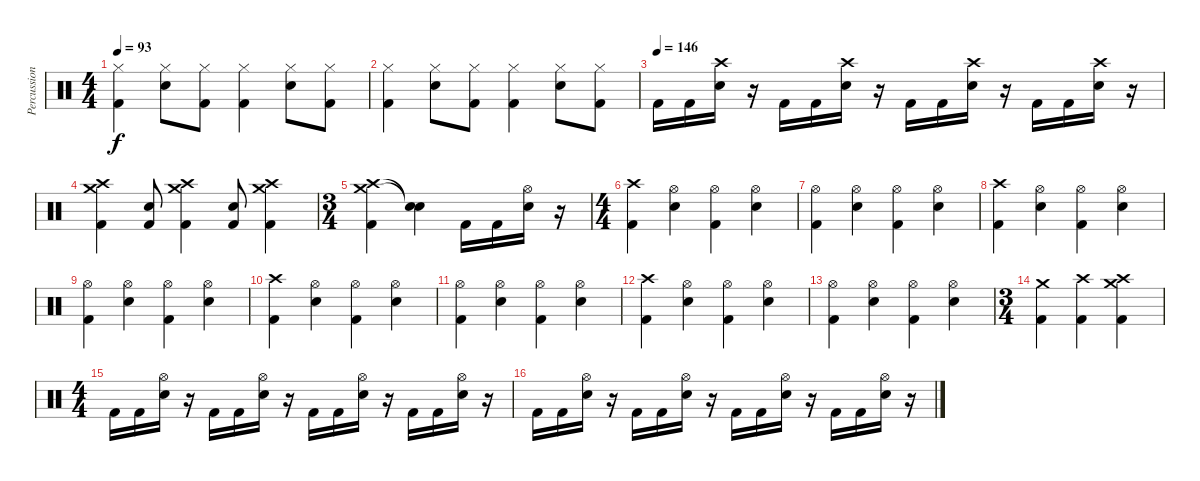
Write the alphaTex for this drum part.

\track ("Percussion(Dr.Spock)" "Percussion") {instrument percussion}
\staff {score}
\articulation defaults
\ts (4 4)
\tempo 93
\clef neutral
\ks c
("Hi-Hat (closed)" "Kick (hit) 2").4{dy f} ("Hi-Hat (closed)" "Snare (hit) 2").8 ("Hi-Hat (closed)" "Kick (hit) 2").8 ("Hi-Hat (closed)" "Kick (hit) 2").4 ("Hi-Hat (closed)" "Snare (hit) 2").8 ("Hi-Hat (closed)" "Kick (hit) 2").8 |
("Hi-Hat (closed)" "Kick (hit) 2").4 ("Hi-Hat (closed)" "Snare (hit) 2").8 ("Hi-Hat (closed)" "Kick (hit) 2").8 ("Hi-Hat (closed)" "Kick (hit) 2").4 ("Hi-Hat (closed)" "Snare (hit) 2").8 ("Hi-Hat (closed)" "Kick (hit) 2").8 |
\tempo (146)
"Kick (hit) 2".16 "Kick (hit) 2".16 ("Snare (hit) 2" "Crash high (hit)").16 r.16 "Kick (hit) 2".16 "Kick (hit) 2".16 ("Snare (hit) 2" "Crash high (hit)").16 r.16 "Kick (hit) 2".16 "Kick (hit) 2".16 ("Snare (hit) 2" "Crash high (hit)").16 r.16 "Kick (hit) 2".16 "Kick (hit) 2".16 ("Snare (hit) 2" "Crash high (hit)").16 r.16 |
("Crash medium (hit)" "Crash high (hit)" "Kick (hit) 2").4 ("Snare (hit) 2" "Kick (hit) 2").8 ("Crash medium (hit)" "Crash high (hit)" "Kick (hit) 2").4 ("Snare (hit) 2" "Kick (hit) 2").8 ("Crash medium (hit)" "Crash high (hit)" "Kick (hit) 2").4 |
\ts (3 4)
("Crash medium (hit)" "Crash high (hit)" "Kick (hit) 2").4 ("Snare (hit)"{t} "Snare (hit)"{t}).4 "Kick (hit) 2".16 "Kick (hit) 2".16 ("Snare (hit) 2" "Hi-Hat (open)").16 r.16 |
\ts (4 4)
("Crash high (hit)" "Kick (hit) 2").4 ("Hi-Hat (open)" "Snare (hit) 2").4 ("Hi-Hat (open)" "Kick (hit) 2").4 ("Hi-Hat (open)" "Snare (hit) 2").4 |
("Hi-Hat (open)" "Kick (hit) 2").4 ("Hi-Hat (open)" "Snare (hit) 2").4 ("Hi-Hat (open)" "Kick (hit) 2").4 ("Hi-Hat (open)" "Snare (hit) 2").4 |
("Crash high (hit)" "Kick (hit) 2").4 ("Hi-Hat (open)" "Snare (hit) 2").4 ("Hi-Hat (open)" "Kick (hit) 2").4 ("Hi-Hat (open)" "Snare (hit) 2").4 |
("Hi-Hat (open)" "Kick (hit) 2").4 ("Hi-Hat (open)" "Snare (hit) 2").4 ("Hi-Hat (open)" "Kick (hit) 2").4 ("Hi-Hat (open)" "Snare (hit) 2").4 |
("Crash high (hit)" "Kick (hit) 2").4 ("Hi-Hat (open)" "Snare (hit) 2").4 ("Hi-Hat (open)" "Kick (hit) 2").4 ("Hi-Hat (open)" "Snare (hit) 2").4 |
("Hi-Hat (open)" "Kick (hit) 2").4 ("Hi-Hat (open)" "Snare (hit) 2").4 ("Hi-Hat (open)" "Kick (hit) 2").4 ("Hi-Hat (open)" "Snare (hit) 2").4 |
("Crash high (hit)" "Kick (hit) 2").4 ("Hi-Hat (open)" "Snare (hit) 2").4 ("Hi-Hat (open)" "Kick (hit) 2").4 ("Hi-Hat (open)" "Snare (hit) 2").4 |
("Hi-Hat (open)" "Kick (hit) 2").4 ("Hi-Hat (open)" "Snare (hit) 2").4 ("Hi-Hat (open)" "Kick (hit) 2").4 ("Hi-Hat (open)" "Snare (hit) 2").4 |
\ts (3 4)
("Crash medium (hit)" "Kick (hit) 2").4 ("Crash high (hit)" "Kick (hit) 2").4 ("Crash medium (hit)" "Crash high (hit)" "Kick (hit) 2").4 |
\ts (4 4)
"Kick (hit) 2".16 "Kick (hit) 2".16 ("Snare (hit) 2" "Hi-Hat (open)").16 r.16 "Kick (hit) 2".16 "Kick (hit) 2".16 ("Snare (hit) 2" "Hi-Hat (open)").16 r.16 "Kick (hit) 2".16 "Kick (hit) 2".16 ("Snare (hit) 2" "Hi-Hat (open)").16 r.16 "Kick (hit) 2".16 "Kick (hit) 2".16 ("Snare (hit) 2" "Hi-Hat (open)").16 r.16 |
"Kick (hit) 2".16 "Kick (hit) 2".16 ("Snare (hit) 2" "Hi-Hat (open)").16 r.16 "Kick (hit) 2".16 "Kick (hit) 2".16 ("Snare (hit) 2" "Hi-Hat (open)").16 r.16 "Kick (hit) 2".16 "Kick (hit) 2".16 ("Snare (hit) 2" "Hi-Hat (open)").16 r.16 "Kick (hit) 2".16 "Kick (hit) 2".16 ("Snare (hit) 2" "Hi-Hat (open)").16 r.16
